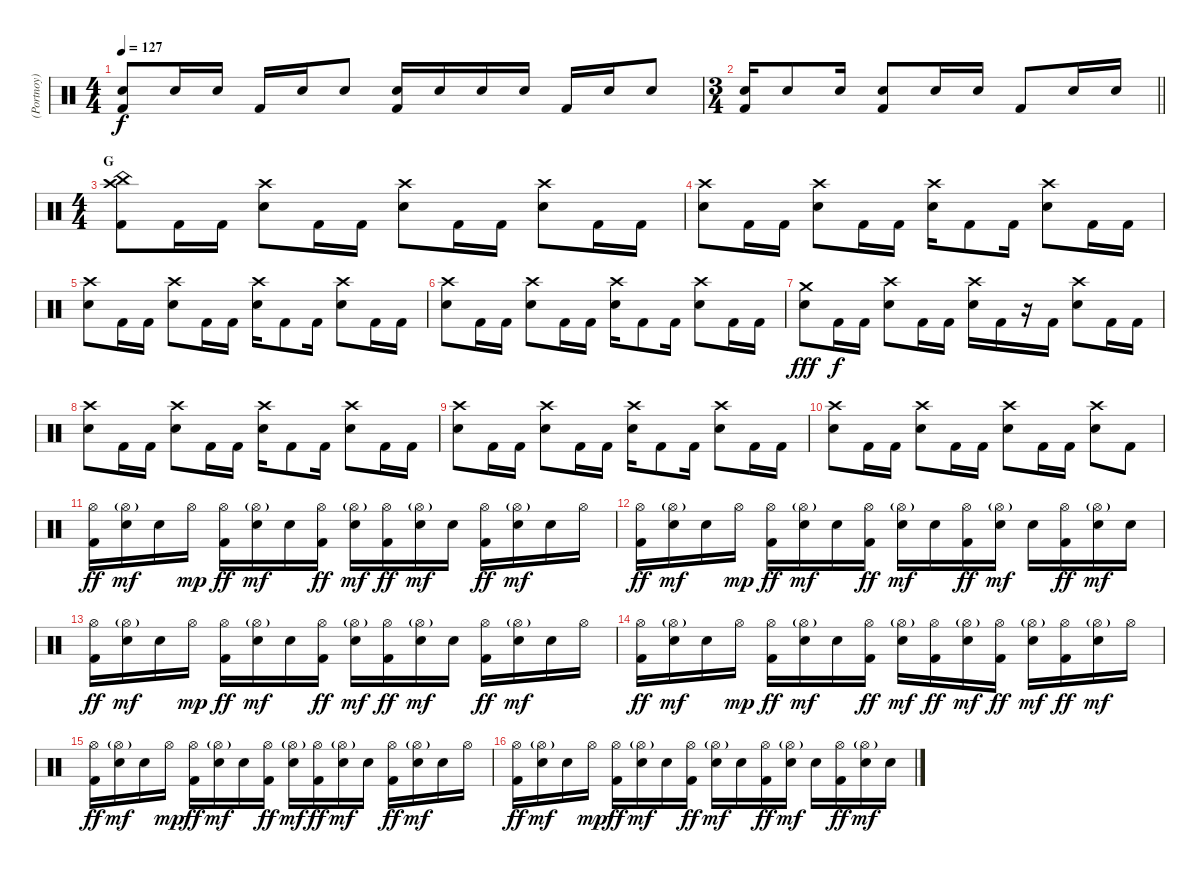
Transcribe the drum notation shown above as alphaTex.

\track ("(Portnoy) Drums" "(Portnoy) ") {instrument percussion}
\staff {score}
\articulation defaults
\ts (4 4)
\tempo 127
\clef neutral
\ks aminor
("Snare (hit) 2" "Kick (hit) 2").8{dy f} "Snare (hit) 2".16 "Snare (hit) 2".16 "Kick (hit) 2".16 "Snare (hit) 2".16 "Snare (hit) 2".8 ("Snare (hit) 2" "Kick (hit) 2").16 "Snare (hit) 2".16 "Snare (hit) 2".16 "Snare (hit) 2".16 "Kick (hit) 2".16 "Snare (hit) 2".16 "Snare (hit) 2".8 |
\ts (3 4)
\barLineRight lightlight
("Snare (hit) 2" "Kick (hit) 2").16 "Snare (hit) 2".8 "Snare (hit) 2".16 ("Snare (hit) 2" "Kick (hit) 2").8 "Snare (hit) 2".16 "Snare (hit) 2".16 "Kick (hit) 2".8 "Snare (hit) 2".16 "Snare (hit) 2".16 |
\ts (4 4)
\section ("" "G")
("Crash high (hit)" "China (hit)" "Kick (hit) 2").8 "Kick (hit) 2".16 "Kick (hit) 2".16 ("Crash high (hit)" "Snare (hit) 2").8 "Kick (hit) 2".16 "Kick (hit) 2".16 ("Crash high (hit)" "Snare (hit) 2").8 "Kick (hit) 2".16 "Kick (hit) 2".16 ("Crash high (hit)" "Snare (hit) 2").8 "Kick (hit) 2".16 "Kick (hit) 2".16 |
("Crash high (hit)" "Snare (hit) 2").8 "Kick (hit) 2".16 "Kick (hit) 2".16 ("Crash high (hit)" "Snare (hit) 2").8 "Kick (hit) 2".16 "Kick (hit) 2".16 ("Crash high (hit)" "Snare (hit) 2").16 "Kick (hit) 2".8 "Kick (hit) 2".16 ("Crash high (hit)" "Snare (hit) 2").8 "Kick (hit) 2".16 "Kick (hit) 2".16 |
("Crash high (hit)" "Snare (hit) 2").8 "Kick (hit) 2".16 "Kick (hit) 2".16 ("Crash high (hit)" "Snare (hit) 2").8 "Kick (hit) 2".16 "Kick (hit) 2".16 ("Crash high (hit)" "Snare (hit) 2").16 "Kick (hit) 2".8 "Kick (hit) 2".16 ("Crash high (hit)" "Snare (hit) 2").8 "Kick (hit) 2".16 "Kick (hit) 2".16 |
("Crash high (hit)" "Snare (hit) 2").8 "Kick (hit) 2".16 "Kick (hit) 2".16 ("Crash high (hit)" "Snare (hit) 2").8 "Kick (hit) 2".16 "Kick (hit) 2".16 ("Crash high (hit)" "Snare (hit) 2").16 "Kick (hit) 2".8 "Kick (hit) 2".16 ("Crash high (hit)" "Snare (hit) 2").8 "Kick (hit) 2".16 "Kick (hit) 2".16 |
("Crash medium (hit)" "Snare (hit) 2").8{dy fff} "Kick (hit) 2".16{dy f} "Kick (hit) 2".16 ("Crash high (hit)" "Snare (hit) 2").8 "Kick (hit) 2".16 "Kick (hit) 2".16 ("Crash high (hit)" "Snare (hit) 2").16 "Kick (hit) 2".16 r.16 "Kick (hit) 2".16 ("Crash high (hit)" "Snare (hit) 2").8 "Kick (hit) 2".16 "Kick (hit) 2".16 |
("Crash high (hit)" "Snare (hit) 2").8 "Kick (hit) 2".16 "Kick (hit) 2".16 ("Crash high (hit)" "Snare (hit) 2").8 "Kick (hit) 2".16 "Kick (hit) 2".16 ("Crash high (hit)" "Snare (hit) 2").16 "Kick (hit) 2".8 "Kick (hit) 2".16 ("Crash high (hit)" "Snare (hit) 2").8 "Kick (hit) 2".16 "Kick (hit) 2".16 |
("Crash high (hit)" "Snare (hit) 2").8 "Kick (hit) 2".16 "Kick (hit) 2".16 ("Crash high (hit)" "Snare (hit) 2").8 "Kick (hit) 2".16 "Kick (hit) 2".16 ("Crash high (hit)" "Snare (hit) 2").16 "Kick (hit) 2".8 "Kick (hit) 2".16 ("Crash high (hit)" "Snare (hit) 2").8 "Kick (hit) 2".16 "Kick (hit) 2".16 |
("Crash high (hit)" "Snare (hit) 2").8 "Kick (hit) 2".16 "Kick (hit) 2".16 ("Crash high (hit)" "Snare (hit) 2").8 "Kick (hit) 2".16 "Kick (hit) 2".16 ("Crash high (hit)" "Snare (hit) 2").8 "Kick (hit) 2".16 "Kick (hit) 2".16 ("Crash high (hit)" "Snare (hit) 2").8 "Kick (hit) 2".8 |
("Hi-Hat (open)" "Kick (hit) 2").16{dy ff} ("Hi-Hat (open)"{g} "Snare (hit) 2").16{dy mf} "Snare (hit) 2".16 "Hi-Hat (open)".16{dy mp} ("Hi-Hat (open)" "Kick (hit) 2").16{dy ff} ("Hi-Hat (open)"{g} "Snare (hit) 2").16{dy mf} "Snare (hit) 2".16 ("Hi-Hat (open)" "Kick (hit) 2").16{dy ff} ("Hi-Hat (open)"{g} "Snare (hit) 2").16{dy mf} ("Hi-Hat (open)" "Kick (hit) 2").16{dy ff} ("Hi-Hat (open)"{g} "Snare (hit) 2").16{dy mf} "Snare (hit) 2".16 ("Hi-Hat (open)" "Kick (hit) 2").16{dy ff} ("Hi-Hat (open)"{g} "Snare (hit) 2").16{dy mf} "Snare (hit) 2".16 "Hi-Hat (open)".16 |
("Hi-Hat (open)" "Kick (hit) 2").16{dy ff} ("Hi-Hat (open)"{g} "Snare (hit) 2").16{dy mf} "Snare (hit) 2".16 "Hi-Hat (open)".16{dy mp} ("Hi-Hat (open)" "Kick (hit) 2").16{dy ff} ("Hi-Hat (open)"{g} "Snare (hit) 2").16{dy mf} "Snare (hit) 2".16 ("Hi-Hat (open)" "Kick (hit) 2").16{dy ff} ("Hi-Hat (open)"{g} "Snare (hit) 2").16{dy mf} "Snare (hit) 2".16 ("Hi-Hat (open)" "Kick (hit) 2").16{dy ff} ("Hi-Hat (open)"{g} "Snare (hit) 2").16{dy mf} "Snare (hit) 2".16 ("Hi-Hat (open)" "Kick (hit) 2").16{dy ff} ("Hi-Hat (open)"{g} "Snare (hit) 2").16{dy mf} "Snare (hit) 2".16 |
("Hi-Hat (open)" "Kick (hit) 2").16{dy ff} ("Hi-Hat (open)"{g} "Snare (hit) 2").16{dy mf} "Snare (hit) 2".16 "Hi-Hat (open)".16{dy mp} ("Hi-Hat (open)" "Kick (hit) 2").16{dy ff} ("Hi-Hat (open)"{g} "Snare (hit) 2").16{dy mf} "Snare (hit) 2".16 ("Hi-Hat (open)" "Kick (hit) 2").16{dy ff} ("Hi-Hat (open)"{g} "Snare (hit) 2").16{dy mf} ("Hi-Hat (open)" "Kick (hit) 2").16{dy ff} ("Hi-Hat (open)"{g} "Snare (hit) 2").16{dy mf} "Snare (hit) 2".16 ("Hi-Hat (open)" "Kick (hit) 2").16{dy ff} ("Hi-Hat (open)"{g} "Snare (hit) 2").16{dy mf} "Snare (hit) 2".16 "Hi-Hat (open)".16 |
("Hi-Hat (open)" "Kick (hit) 2").16{dy ff} ("Hi-Hat (open)"{g} "Snare (hit) 2").16{dy mf} "Snare (hit) 2".16 "Hi-Hat (open)".16{dy mp} ("Hi-Hat (open)" "Kick (hit) 2").16{dy ff} ("Hi-Hat (open)"{g} "Snare (hit) 2").16{dy mf} "Snare (hit) 2".16 ("Hi-Hat (open)" "Kick (hit) 2").16{dy ff} ("Hi-Hat (open)"{g} "Snare (hit) 2").16{dy mf} ("Hi-Hat (open)" "Kick (hit) 2").16{dy ff} ("Hi-Hat (open)"{g} "Snare (hit) 2").16{dy mf} ("Hi-Hat (open)" "Kick (hit) 2").16{dy ff} ("Hi-Hat (open)"{g} "Snare (hit) 2").16{dy mf} ("Hi-Hat (open)" "Kick (hit) 2").16{dy ff} ("Hi-Hat (open)"{g} "Snare (hit) 2").16{dy mf} "Hi-Hat (open)".16 |
("Hi-Hat (open)" "Kick (hit) 2").16{dy ff} ("Hi-Hat (open)"{g} "Snare (hit) 2").16{dy mf} "Snare (hit) 2".16 "Hi-Hat (open)".16{dy mp} ("Hi-Hat (open)" "Kick (hit) 2").16{dy ff} ("Hi-Hat (open)"{g} "Snare (hit) 2").16{dy mf} "Snare (hit) 2".16 ("Hi-Hat (open)" "Kick (hit) 2").16{dy ff} ("Hi-Hat (open)"{g} "Snare (hit) 2").16{dy mf} ("Hi-Hat (open)" "Kick (hit) 2").16{dy ff} ("Hi-Hat (open)"{g} "Snare (hit) 2").16{dy mf} "Snare (hit) 2".16 ("Hi-Hat (open)" "Kick (hit) 2").16{dy ff} ("Hi-Hat (open)"{g} "Snare (hit) 2").16{dy mf} "Snare (hit) 2".16 "Hi-Hat (open)".16 |
("Hi-Hat (open)" "Kick (hit) 2").16{dy ff} ("Hi-Hat (open)"{g} "Snare (hit) 2").16{dy mf} "Snare (hit) 2".16 "Hi-Hat (open)".16{dy mp} ("Hi-Hat (open)" "Kick (hit) 2").16{dy ff} ("Hi-Hat (open)"{g} "Snare (hit) 2").16{dy mf} "Snare (hit) 2".16 ("Hi-Hat (open)" "Kick (hit) 2").16{dy ff} ("Hi-Hat (open)"{g} "Snare (hit) 2").16{dy mf} "Snare (hit) 2".16 ("Hi-Hat (open)" "Kick (hit) 2").16{dy ff} ("Hi-Hat (open)"{g} "Snare (hit) 2").16{dy mf} "Snare (hit) 2".16 ("Hi-Hat (open)" "Kick (hit) 2").16{dy ff} ("Hi-Hat (open)"{g} "Snare (hit) 2").16{dy mf} "Snare (hit) 2".16
